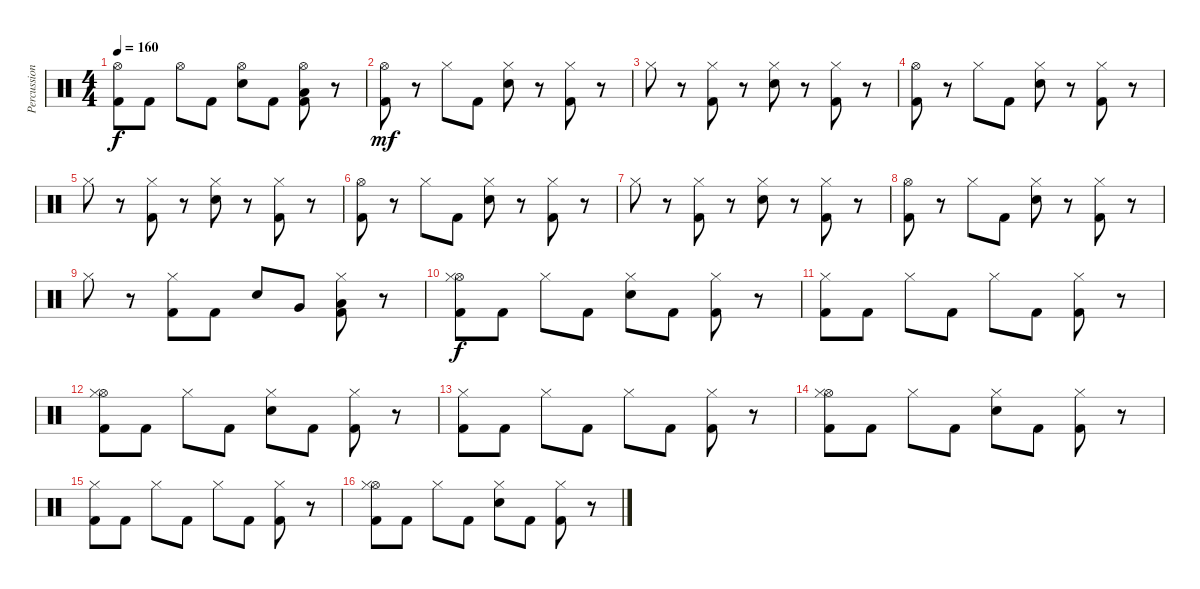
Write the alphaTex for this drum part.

\track ("Percussioni" "Percussion") {instrument percussion}
\staff {score}
\articulation defaults
\ts (4 4)
\tempo 160
\clef neutral
\ks c
("Hi-Hat (open)" "Kick (hit) 2").8{dy f} "Kick (hit) 2".8 "Hi-Hat (open)".8 "Kick (hit) 2".8 ("Hi-Hat (open)" "Snare (hit) 2").8 "Kick (hit) 2".8 ("Hi-Hat (open)" "Low Floor Tom (hit)" "Kick (hit) 2").8 r.8 |
("Hi-Hat (open)" "Kick (hit) 2").8{dy mf} r.8 "Hi-Hat (closed)".8 "Kick (hit) 2".8 ("Hi-Hat (closed)" "Snare (hit) 2").8 r.8 ("Hi-Hat (closed)" "Kick (hit) 2").8 r.8 |
"Hi-Hat (closed)".8 r.8 ("Hi-Hat (closed)" "Kick (hit) 2").8 r.8 ("Hi-Hat (closed)" "Snare (hit) 2").8 r.8 ("Hi-Hat (closed)" "Kick (hit) 2").8 r.8 |
("Hi-Hat (open)" "Kick (hit) 2").8 r.8 "Hi-Hat (closed)".8 "Kick (hit) 2".8 ("Hi-Hat (closed)" "Snare (hit) 2").8 r.8 ("Hi-Hat (closed)" "Kick (hit) 2").8 r.8 |
"Hi-Hat (closed)".8 r.8 ("Hi-Hat (closed)" "Kick (hit) 2").8 r.8 ("Hi-Hat (closed)" "Snare (hit) 2").8 r.8 ("Hi-Hat (closed)" "Kick (hit) 2").8 r.8 |
("Hi-Hat (open)" "Kick (hit) 2").8 r.8 "Hi-Hat (closed)".8 "Kick (hit) 2".8 ("Hi-Hat (closed)" "Snare (hit) 2").8 r.8 ("Hi-Hat (closed)" "Kick (hit) 2").8 r.8 |
"Hi-Hat (closed)".8 r.8 ("Hi-Hat (closed)" "Kick (hit) 2").8 r.8 ("Hi-Hat (closed)" "Snare (hit) 2").8 r.8 ("Hi-Hat (closed)" "Kick (hit) 2").8 r.8 |
("Hi-Hat (open)" "Kick (hit) 2").8 r.8 "Hi-Hat (closed)".8 "Kick (hit) 2".8 ("Hi-Hat (closed)" "Snare (hit) 2").8 r.8 ("Hi-Hat (closed)" "Kick (hit) 2").8 r.8 |
"Hi-Hat (closed)".8 r.8 ("Hi-Hat (closed)" "Kick (hit) 2").8 "Kick (hit) 2".8 "Snare (hit) 2".8 "Very Low Tom (hit)".8 ("Hi-Hat (closed)" "Low Floor Tom (hit)" "Kick (hit) 2").8 r.8 |
("Hi-Hat (open)" "Hi-Hat (closed)" "Kick (hit) 2").8{dy f} "Kick (hit) 2".8 "Hi-Hat (closed)".8 "Kick (hit) 2".8 ("Hi-Hat (closed)" "Snare (hit) 2").8 "Kick (hit) 2".8 ("Hi-Hat (closed)" "Kick (hit) 2").8 r.8 |
("Hi-Hat (closed)" "Kick (hit) 2").8 "Kick (hit) 2".8 "Hi-Hat (closed)".8 "Kick (hit) 2".8 "Hi-Hat (closed)".8 "Kick (hit) 2".8 ("Hi-Hat (closed)" "Kick (hit) 2").8 r.8 |
("Hi-Hat (open)" "Hi-Hat (closed)" "Kick (hit) 2").8 "Kick (hit) 2".8 "Hi-Hat (closed)".8 "Kick (hit) 2".8 ("Hi-Hat (closed)" "Snare (hit) 2").8 "Kick (hit) 2".8 ("Hi-Hat (closed)" "Kick (hit) 2").8 r.8 |
("Hi-Hat (closed)" "Kick (hit) 2").8 "Kick (hit) 2".8 "Hi-Hat (closed)".8 "Kick (hit) 2".8 "Hi-Hat (closed)".8 "Kick (hit) 2".8 ("Hi-Hat (closed)" "Kick (hit) 2").8 r.8 |
("Hi-Hat (open)" "Hi-Hat (closed)" "Kick (hit) 2").8 "Kick (hit) 2".8 "Hi-Hat (closed)".8 "Kick (hit) 2".8 ("Hi-Hat (closed)" "Snare (hit) 2").8 "Kick (hit) 2".8 ("Hi-Hat (closed)" "Kick (hit) 2").8 r.8 |
("Hi-Hat (closed)" "Kick (hit) 2").8 "Kick (hit) 2".8 "Hi-Hat (closed)".8 "Kick (hit) 2".8 "Hi-Hat (closed)".8 "Kick (hit) 2".8 ("Hi-Hat (closed)" "Kick (hit) 2").8 r.8 |
("Hi-Hat (open)" "Hi-Hat (closed)" "Kick (hit) 2").8 "Kick (hit) 2".8 "Hi-Hat (closed)".8 "Kick (hit) 2".8 ("Hi-Hat (closed)" "Snare (hit) 2").8 "Kick (hit) 2".8 ("Hi-Hat (closed)" "Kick (hit) 2").8 r.8
